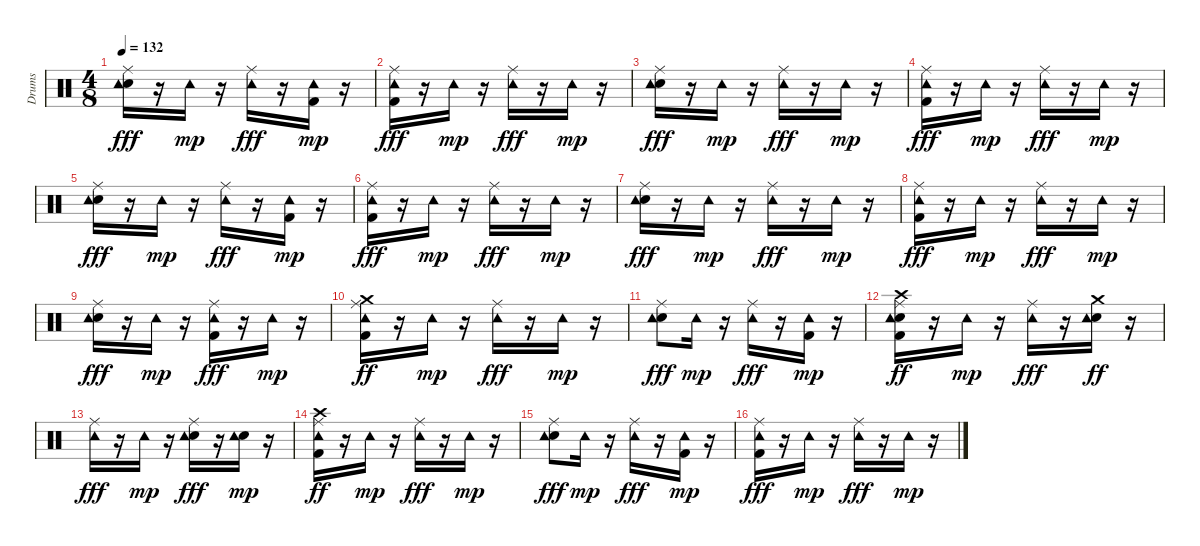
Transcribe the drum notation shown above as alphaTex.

\track ("Drums" "Drums") {instrument percussion}
\staff {score}
\articulation defaults
\ts (4 8)
\tempo 132
\clef neutral
\ks c
("Snare (hit) 2" "Ride (middle)" "Tambourine (hit)").16{dy fff} r.16 "Tambourine (hit)".16{dy mp} r.16 ("Ride (middle)" "Tambourine (hit)").16{dy fff} r.16 ("Kick (hit) 2" "Tambourine (hit)").16{dy mp} r.16 |
("Kick (hit) 2" "Ride (middle)" "Tambourine (hit)").16{dy fff} r.16 "Tambourine (hit)".16{dy mp} r.16 ("Ride (middle)" "Tambourine (hit)").16{dy fff} r.16 "Tambourine (hit)".16{dy mp} r.16 |
("Snare (hit) 2" "Ride (middle)" "Tambourine (hit)").16{dy fff} r.16 "Tambourine (hit)".16{dy mp} r.16 ("Ride (middle)" "Tambourine (hit)").16{dy fff} r.16 "Tambourine (hit)".16{dy mp} r.16 |
("Kick (hit) 2" "Ride (middle)" "Tambourine (hit)").16{dy fff} r.16 "Tambourine (hit)".16{dy mp} r.16 ("Ride (middle)" "Tambourine (hit)").16{dy fff} r.16 "Tambourine (hit)".16{dy mp} r.16 |
("Snare (hit) 2" "Ride (middle)" "Tambourine (hit)").16{dy fff} r.16 "Tambourine (hit)".16{dy mp} r.16 ("Ride (middle)" "Tambourine (hit)").16{dy fff} r.16 ("Kick (hit) 2" "Tambourine (hit)").16{dy mp} r.16 |
("Kick (hit) 2" "Ride (middle)" "Tambourine (hit)").16{dy fff} r.16 "Tambourine (hit)".16{dy mp} r.16 ("Ride (middle)" "Tambourine (hit)").16{dy fff} r.16 "Tambourine (hit)".16{dy mp} r.16 |
("Snare (hit) 2" "Ride (middle)" "Tambourine (hit)").16{dy fff} r.16 "Tambourine (hit)".16{dy mp} r.16 ("Ride (middle)" "Tambourine (hit)").16{dy fff} r.16 "Tambourine (hit)".16{dy mp} r.16 |
("Kick (hit) 2" "Ride (middle)" "Tambourine (hit)").16{dy fff} r.16 "Tambourine (hit)".16{dy mp} r.16 ("Ride (middle)" "Tambourine (hit)").16{dy fff} r.16 "Tambourine (hit)".16{dy mp} r.16 |
("Snare (hit) 2" "Ride (middle)" "Tambourine (hit)").16{dy fff} r.16 "Tambourine (hit)".16{dy mp} r.16 ("Kick (hit) 2" "Ride (middle)" "Tambourine (hit)").16{dy fff} r.16 "Tambourine (hit)".16{dy mp} r.16 |
("Kick (hit) 2" "Ride (middle)" "Tambourine (hit)" "Crash medium (hit)").16{dy ff} r.16 "Tambourine (hit)".16{dy mp} r.16 ("Ride (middle)" "Tambourine (hit)").16{dy fff} r.16 "Tambourine (hit)".16{dy mp} r.16 |
("Snare (hit) 2" "Ride (middle)" "Tambourine (hit)").8{dy fff} "Tambourine (hit)".16{dy mp} r.16 ("Ride (middle)" "Tambourine (hit)").16{dy fff} r.16 ("Kick (hit) 2" "Tambourine (hit)").16{dy mp} r.16 |
("Kick (hit) 2" "Snare (hit) 2" "Ride (middle)" "Tambourine (hit)" "Crash high (hit)").16{dy ff} r.16 "Tambourine (hit)".16{dy mp} r.16 ("Ride (middle)" "Tambourine (hit)").16{dy fff} r.16 ("Snare (hit) 2" "Tambourine (hit)" "Crash medium (hit)").16{dy ff} r.16 |
("Ride (middle)" "Tambourine (hit)").16{dy fff} r.16 "Tambourine (hit)".16{dy mp} r.16 ("Snare (hit) 2" "Ride (middle)" "Tambourine (hit)").16{dy fff} r.16 ("Snare (hit) 2" "Tambourine (hit)").16{dy mp} r.16 |
("Kick (hit) 2" "Ride (middle)" "Tambourine (hit)" "Crash high (hit)").16{dy ff} r.16 "Tambourine (hit)".16{dy mp} r.16 ("Ride (middle)" "Tambourine (hit)").16{dy fff} r.16 "Tambourine (hit)".16{dy mp} r.16 |
("Snare (hit) 2" "Ride (middle)" "Tambourine (hit)").8{dy fff} "Tambourine (hit)".16{dy mp} r.16 ("Ride (middle)" "Tambourine (hit)").16{dy fff} r.16 ("Kick (hit) 2" "Tambourine (hit)").16{dy mp} r.16 |
("Kick (hit) 2" "Ride (middle)" "Tambourine (hit)").16{dy fff} r.16 "Tambourine (hit)".16{dy mp} r.16 ("Ride (middle)" "Tambourine (hit)").16{dy fff} r.16 "Tambourine (hit)".16{dy mp} r.16
